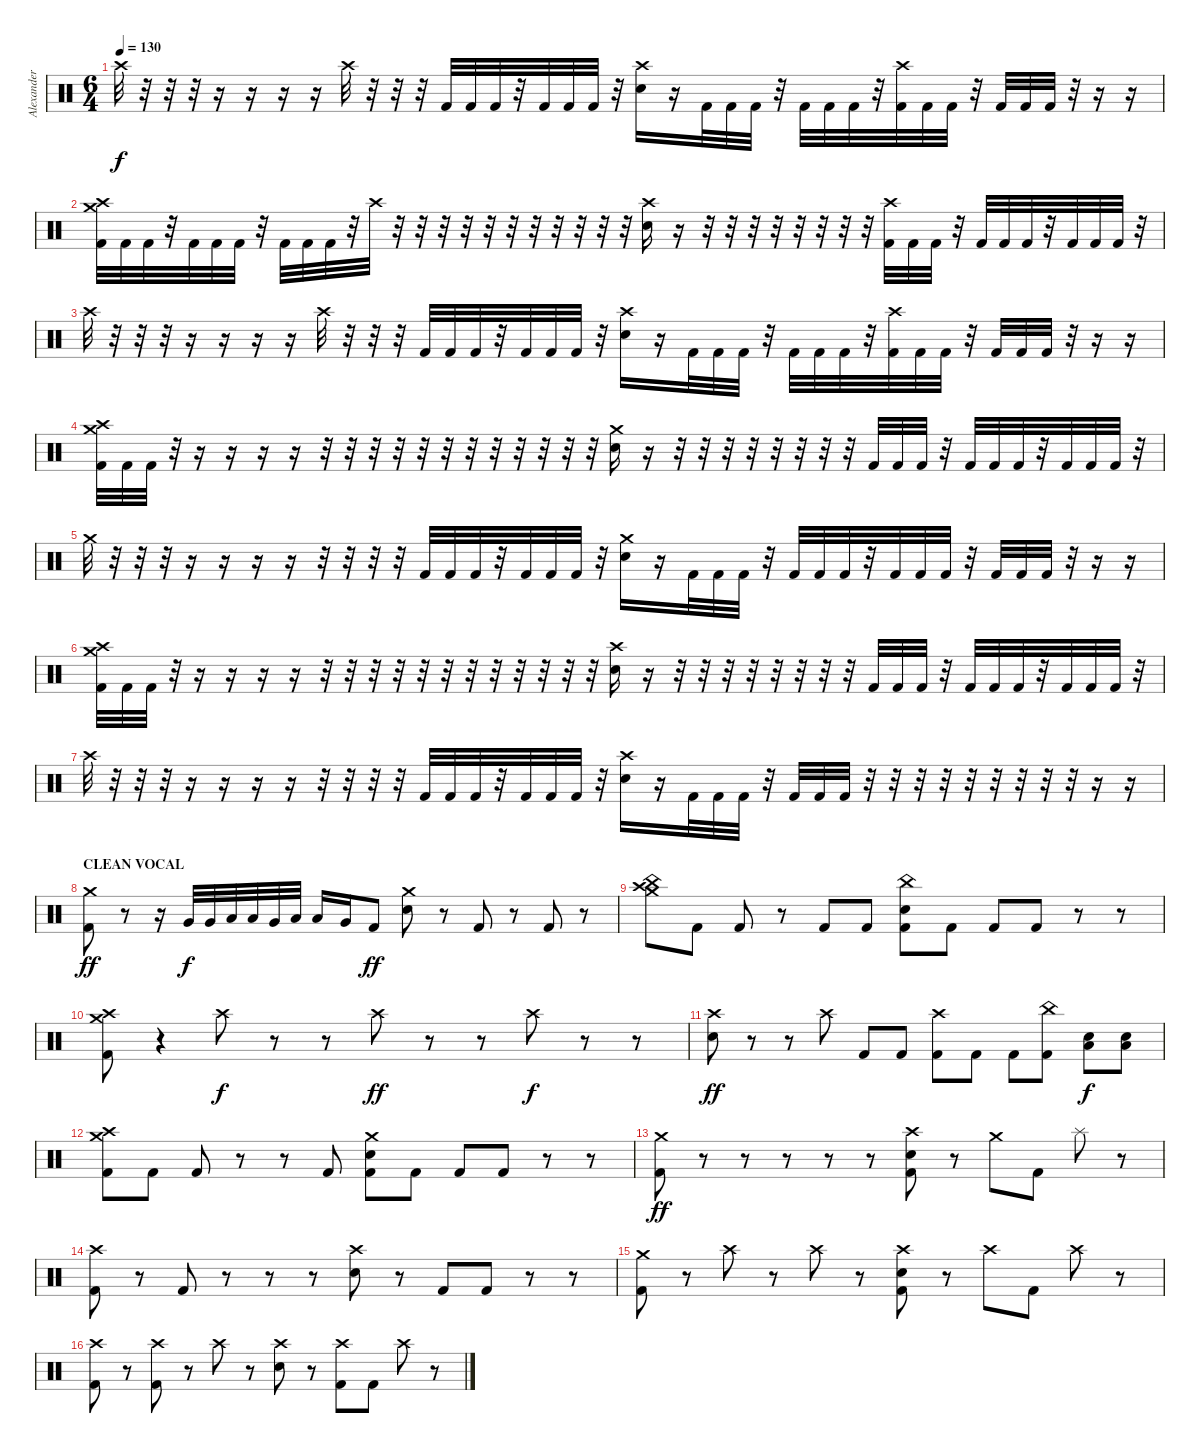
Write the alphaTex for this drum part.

\track ("Alexander Yazykov" "Alexander ") {instrument percussion}
\staff {score}
\articulation defaults
\ts (6 4)
\tempo 130
\clef neutral
\ks c "Crash high (hit)".32{dy f}
r.32 r.32 r.32 r.16 r.16 r.16 r.16 "Crash high (hit)".32 r.32 r.32 r.32 "Kick (hit) 2".32 "Kick (hit) 2".32 "Kick (hit) 2".32 r.32 "Kick (hit) 2".32 "Kick (hit) 2".32 "Kick (hit) 2".32 r.32 ("Crash high (hit)" "Electric Snare (hit)").16 r.16 "Kick (hit) 2".32 "Kick (hit) 2".32 "Kick (hit) 2".32 r.32 "Kick (hit) 2".32 "Kick (hit) 2".32 "Kick (hit) 2".32 r.32 ("Crash high (hit)" "Kick (hit) 2").32 "Kick (hit) 2".32 "Kick (hit) 2".32 r.32 "Kick (hit) 2".32 "Kick (hit) 2".32 "Kick (hit) 2".32 r.32 r.16 r.16 |
("Crash high (hit)" "Crash medium (hit)" "Kick (hit) 2").32 "Kick (hit) 2".32 "Kick (hit) 2".32 r.32 "Kick (hit) 2".32 "Kick (hit) 2".32 "Kick (hit) 2".32 r.32 "Kick (hit) 2".32 "Kick (hit) 2".32 "Kick (hit) 2".32 r.32 "Crash high (hit)".32 r.32 r.32 r.32 r.32 r.32 r.32 r.32 r.32 r.32 r.32 r.32 ("Crash high (hit)" "Electric Snare (hit)").16 r.16 r.32 r.32 r.32 r.32 r.32 r.32 r.32 r.32 ("Crash high (hit)" "Kick (hit) 2").32 "Kick (hit) 2".32 "Kick (hit) 2".32 r.32 "Kick (hit) 2".32 "Kick (hit) 2".32 "Kick (hit) 2".32 r.32 "Kick (hit) 2".32 "Kick (hit) 2".32 "Kick (hit) 2".32 r.32 |
"Crash high (hit)".32 r.32 r.32 r.32 r.16 r.16 r.16 r.16 "Crash high (hit)".32 r.32 r.32 r.32 "Kick (hit) 2".32 "Kick (hit) 2".32 "Kick (hit) 2".32 r.32 "Kick (hit) 2".32 "Kick (hit) 2".32 "Kick (hit) 2".32 r.32 ("Crash high (hit)" "Electric Snare (hit)").16 r.16 "Kick (hit) 2".32 "Kick (hit) 2".32 "Kick (hit) 2".32 r.32 "Kick (hit) 2".32 "Kick (hit) 2".32 "Kick (hit) 2".32 r.32 ("Crash high (hit)" "Kick (hit) 2").32 "Kick (hit) 2".32 "Kick (hit) 2".32 r.32 "Kick (hit) 2".32 "Kick (hit) 2".32 "Kick (hit) 2".32 r.32 r.16 r.16 |
("Crash high (hit)" "Crash medium (hit)" "Kick (hit) 2").32 "Kick (hit) 2".32 "Kick (hit) 2".32 r.32 r.16 r.16 r.16 r.16 r.32 r.32 r.32 r.32 r.32 r.32 r.32 r.32 r.32 r.32 r.32 r.32 ("Crash medium (hit)" "Electric Snare (hit)").16 r.16 r.32 r.32 r.32 r.32 r.32 r.32 r.32 r.32 "Kick (hit) 2".32 "Kick (hit) 2".32 "Kick (hit) 2".32 r.32 "Kick (hit) 2".32 "Kick (hit) 2".32 "Kick (hit) 2".32 r.32 "Kick (hit) 2".32 "Kick (hit) 2".32 "Kick (hit) 2".32 r.32 |
"Crash medium (hit)".32 r.32 r.32 r.32 r.16 r.16 r.16 r.16 r.32 r.32 r.32 r.32 "Kick (hit) 2".32 "Kick (hit) 2".32 "Kick (hit) 2".32 r.32 "Kick (hit) 2".32 "Kick (hit) 2".32 "Kick (hit) 2".32 r.32 ("Crash medium (hit)" "Electric Snare (hit)").16 r.16 "Kick (hit) 2".32 "Kick (hit) 2".32 "Kick (hit) 2".32 r.32 "Kick (hit) 2".32 "Kick (hit) 2".32 "Kick (hit) 2".32 r.32 "Kick (hit) 2".32 "Kick (hit) 2".32 "Kick (hit) 2".32 r.32 "Kick (hit) 2".32 "Kick (hit) 2".32 "Kick (hit) 2".32 r.32 r.16 r.16 |
("Crash high (hit)" "Crash medium (hit)" "Kick (hit) 2").32 "Kick (hit) 2".32 "Kick (hit) 2".32 r.32 r.16 r.16 r.16 r.16 r.32 r.32 r.32 r.32 r.32 r.32 r.32 r.32 r.32 r.32 r.32 r.32 ("Crash high (hit)" "Electric Snare (hit)").16 r.16 r.32 r.32 r.32 r.32 r.32 r.32 r.32 r.32 "Kick (hit) 2".32 "Kick (hit) 2".32 "Kick (hit) 2".32 r.32 "Kick (hit) 2".32 "Kick (hit) 2".32 "Kick (hit) 2".32 r.32 "Kick (hit) 2".32 "Kick (hit) 2".32 "Kick (hit) 2".32 r.32 |
"Crash high (hit)".32 r.32 r.32 r.32 r.16 r.16 r.16 r.16 r.32 r.32 r.32 r.32 "Kick (hit) 2".32 "Kick (hit) 2".32 "Kick (hit) 2".32 r.32 "Kick (hit) 2".32 "Kick (hit) 2".32 "Kick (hit) 2".32 r.32 ("Crash high (hit)" "Electric Snare (hit)").16 r.16 "Kick (hit) 2".32 "Kick (hit) 2".32 "Kick (hit) 2".32 r.32 "Kick (hit) 2".32 "Kick (hit) 2".32 "Kick (hit) 2".32 r.32 r.32 r.32 r.32 r.32 r.32 r.32 r.32 r.32 r.16 r.16 |
\section ("" "CLEAN VOCAL")
("Crash medium (hit)" "Kick (hit) 2").8{dy ff} r.8 r.16 "Very Low Tom (hit)".32{dy f} "Very Low Tom (hit)".32 "Low Tom (hit)".32 "Low Tom (hit)".32 "Very Low Tom (hit)".32 "Low Tom (hit)".32 "Low Floor Tom (hit)".16 "Very Low Tom (hit)".16 "Kick (hit) 2".8{dy ff} ("Crash medium (hit)" "Electric Snare (hit)").8 r.8 "Kick (hit) 2".8 r.8 "Kick (hit) 2".8 r.8 |
("Crash high (hit)" "Crash medium (hit)" "China (hit)").8 "Kick (hit) 2".8 "Kick (hit) 2".8 r.8 "Kick (hit) 2".8 "Kick (hit) 2".8 ("China (hit)" "Electric Snare (hit)" "Kick (hit) 2").8 "Kick (hit) 2".8 "Kick (hit) 2".8 "Kick (hit) 2".8 r.8 r.8 |
("Crash medium (hit)" "Crash high (hit)" "Kick (hit) 2").8 r.4 "Crash high (hit)".8{dy f} r.8 r.8 "Crash high (hit)".8{dy ff} r.8 r.8 "Crash high (hit)".8{dy f} r.8 r.8 |
("Crash high (hit)" "Electric Snare (hit)").8{dy ff} r.8 r.8 "Crash high (hit)".8 "Kick (hit) 2".8 "Kick (hit) 2".8 ("Crash high (hit)" "Kick (hit) 2").8 "Kick (hit) 2".8 "Kick (hit) 2".8 ("China (hit)" "Kick (hit) 2").8 ("Low Floor Tom (hit)" "Electric Snare (hit)").8{dy f} ("Low Floor Tom (hit)" "Electric Snare (hit)").8 |
("Crash medium (hit)" "Crash high (hit)" "Kick (hit) 2").8 "Kick (hit) 2".8 "Kick (hit) 2".8 r.8 r.8 "Kick (hit) 2".8 ("Crash medium (hit)" "Electric Snare (hit)" "Kick (hit) 2").8 "Kick (hit) 2".8 "Kick (hit) 2".8 "Kick (hit) 2".8 r.8{volume 0} r.8 |
("Crash medium (hit)" "Kick (hit) 2").8{dy ff volume 13} r.8 r.8 r.8 r.8 r.8 ("Crash high (hit)" "Electric Snare (hit)" "Kick (hit) 2").8 r.8 "Crash medium (hit)".8 "Kick (hit) 2".8 "Splash (hit)".8 r.8 |
("Crash high (hit)" "Kick (hit) 2").8 r.8 "Kick (hit) 2".8 r.8 r.8 r.8 ("Crash high (hit)" "Electric Snare (hit)").8 r.8 "Kick (hit) 2".8 "Kick (hit) 2".8 r.8 r.8 |
("Crash medium (hit)" "Kick (hit) 2").8 r.8 "Crash high (hit)".8 r.8 "Crash high (hit)".8 r.8 ("Crash high (hit)" "Electric Snare (hit)" "Kick (hit) 2").8 r.8 "Crash high (hit)".8 "Kick (hit) 2".8 "Crash high (hit)".8 r.8 |
("Crash high (hit)" "Kick (hit) 2").8 r.8 ("Crash high (hit)" "Kick (hit) 2").8 r.8 "Crash high (hit)".8 r.8 ("Crash high (hit)" "Electric Snare (hit)").8 r.8 ("Crash high (hit)" "Kick (hit) 2").8 "Kick (hit) 2".8 "Crash high (hit)".8 r.8
